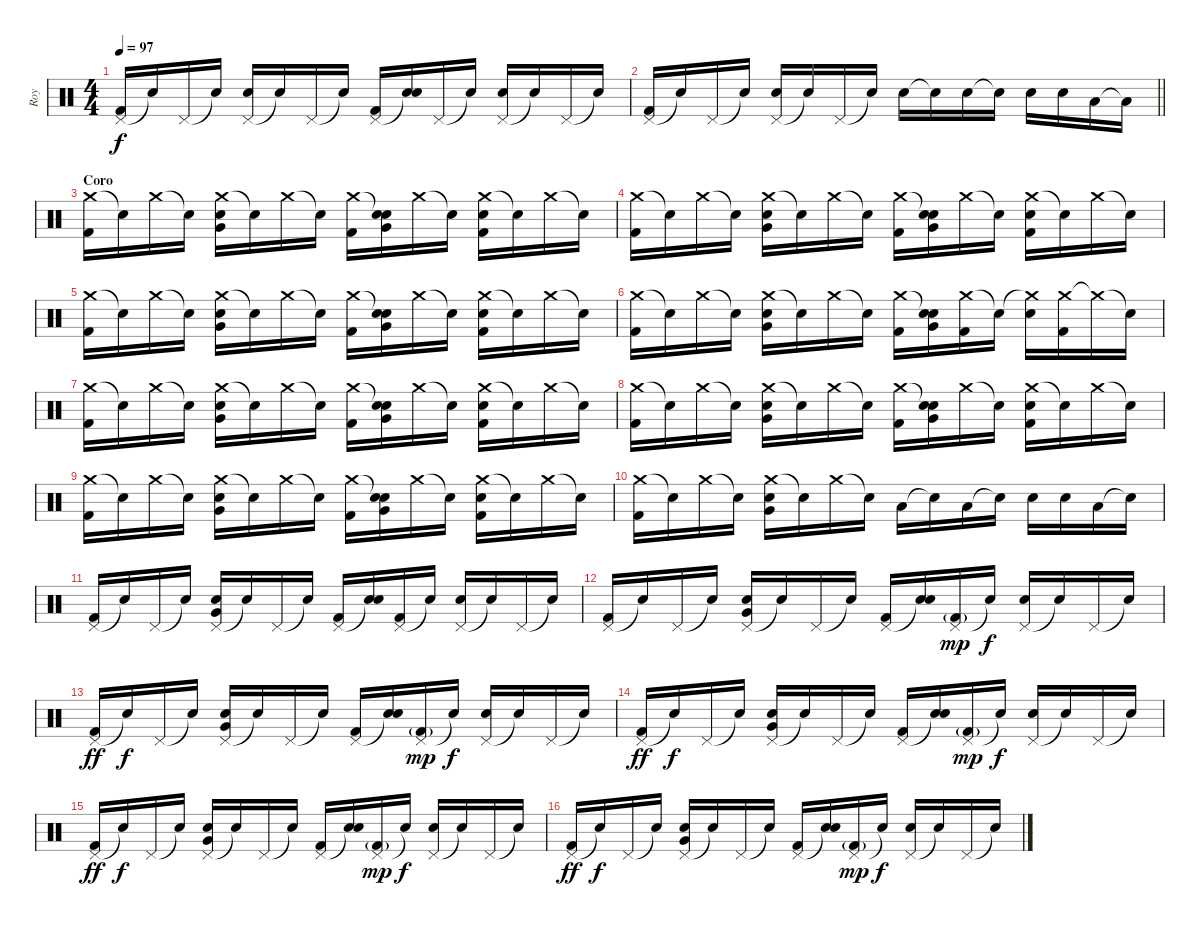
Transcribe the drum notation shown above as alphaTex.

\track ("Roy" "Roy") {instrument percussion}
\staff {score}
\articulation defaults
\ts (4 4)
\tempo 97
\clef neutral
\ks c
("Pedal Hi-Hat (hit)" "Kick (hit) 2").16{dy f} "Snare (hit)"{t}.16 "Pedal Hi-Hat (hit)".16 "Snare (hit)"{t}.16 ("Pedal Hi-Hat (hit)" "Electric Snare (hit)").16 "Snare (hit)"{t}.16 "Pedal Hi-Hat (hit)".16 "Snare (hit)"{t}.16 ("Pedal Hi-Hat (hit)" "Kick (hit) 2").16 ("Snare (hit)"{t} "Electric Snare (hit)").16 "Pedal Hi-Hat (hit)".16 "Snare (hit)"{t}.16 ("Pedal Hi-Hat (hit)" "Electric Snare (hit)").16 "Snare (hit)"{t}.16 "Pedal Hi-Hat (hit)".16 "Snare (hit)"{t}.16 |
\barLineRight lightlight
("Pedal Hi-Hat (hit)" "Kick (hit) 2").16 "Snare (hit)"{t}.16 "Pedal Hi-Hat (hit)".16 "Snare (hit)"{t}.16 ("Pedal Hi-Hat (hit)" "Electric Snare (hit)").16 "Snare (hit)"{t}.16 "Pedal Hi-Hat (hit)".16 "Snare (hit)"{t}.16 "Electric Snare (hit)".16 "Electric Snare (hit)"{t}.16 "Electric Snare (hit)".16 "Snare (hit)"{t}.16 "Electric Snare (hit)".16 "Electric Snare (hit)".16 "Low Tom (hit)".16 "Low Tom (hit)"{t}.16 |
\section ("" "Coro")
("Crash medium (hit)" "Kick (hit) 2").16 "Snare (hit)"{t}.16 "Crash medium (hit)".16 "Snare (hit)"{t}.16 ("Crash medium (hit)" "Electric Snare (hit)" "Very Low Tom (hit)").16 "Snare (hit)"{t}.16 "Crash medium (hit)".16 "Snare (hit)"{t}.16 ("Crash medium (hit)" "Kick (hit) 2").16 ("Snare (hit)"{t} "Electric Snare (hit)" "Very Low Tom (hit)").16 "Crash medium (hit)".16 "Snare (hit)"{t}.16 ("Crash medium (hit)" "Electric Snare (hit)" "Kick (hit) 2").16 "Snare (hit)"{t}.16 "Crash medium (hit)".16 "Snare (hit)"{t}.16 |
("Crash medium (hit)" "Kick (hit) 2").16 "Snare (hit)"{t}.16 "Crash medium (hit)".16 "Snare (hit)"{t}.16 ("Crash medium (hit)" "Electric Snare (hit)" "Very Low Tom (hit)").16 "Snare (hit)"{t}.16 "Crash medium (hit)".16 "Snare (hit)"{t}.16 ("Crash medium (hit)" "Kick (hit) 2").16 ("Snare (hit)"{t} "Electric Snare (hit)" "Very Low Tom (hit)").16 "Crash medium (hit)".16 "Snare (hit)"{t}.16 ("Crash medium (hit)" "Electric Snare (hit)" "Kick (hit) 2").16 "Snare (hit)"{t}.16 "Crash medium (hit)".16 "Snare (hit)"{t}.16 |
("Crash medium (hit)" "Kick (hit) 2").16 "Snare (hit)"{t}.16 "Crash medium (hit)".16 "Snare (hit)"{t}.16 ("Crash medium (hit)" "Electric Snare (hit)" "Very Low Tom (hit)").16 "Snare (hit)"{t}.16 "Crash medium (hit)".16 "Snare (hit)"{t}.16 ("Crash medium (hit)" "Kick (hit) 2").16 ("Snare (hit)"{t} "Electric Snare (hit)" "Very Low Tom (hit)").16 "Crash medium (hit)".16 "Snare (hit)"{t}.16 ("Crash medium (hit)" "Electric Snare (hit)" "Kick (hit) 2").16 "Snare (hit)"{t}.16 "Crash medium (hit)".16 "Snare (hit)"{t}.16 |
("Crash medium (hit)" "Kick (hit) 2").16 "Snare (hit)"{t}.16 "Crash medium (hit)".16 "Snare (hit)"{t}.16 ("Crash medium (hit)" "Electric Snare (hit)" "Very Low Tom (hit)").16 "Snare (hit)"{t}.16 "Crash medium (hit)".16 "Snare (hit)"{t}.16 ("Crash medium (hit)" "Kick (hit) 2").16 ("Snare (hit)"{t} "Electric Snare (hit)" "Very Low Tom (hit)").16 ("Crash medium (hit)" "Kick (hit) 2").16 "Snare (hit)"{t}.16 ("Crash medium (hit)"{t} "Electric Snare (hit)").16 ("Crash medium (hit)" "Kick (hit) 2").16 "Crash medium (hit)"{t}.16 "Snare (hit)"{t}.16 |
("Crash medium (hit)" "Kick (hit) 2").16 "Snare (hit)"{t}.16 "Crash medium (hit)".16 "Snare (hit)"{t}.16 ("Crash medium (hit)" "Electric Snare (hit)" "Very Low Tom (hit)").16 "Snare (hit)"{t}.16 "Crash medium (hit)".16 "Snare (hit)"{t}.16 ("Crash medium (hit)" "Kick (hit) 2").16 ("Snare (hit)"{t} "Electric Snare (hit)" "Very Low Tom (hit)").16 "Crash medium (hit)".16 "Snare (hit)"{t}.16 ("Crash medium (hit)" "Electric Snare (hit)" "Kick (hit) 2").16 "Snare (hit)"{t}.16 "Crash medium (hit)".16 "Snare (hit)"{t}.16 |
("Crash medium (hit)" "Kick (hit) 2").16 "Snare (hit)"{t}.16 "Crash medium (hit)".16 "Snare (hit)"{t}.16 ("Crash medium (hit)" "Electric Snare (hit)" "Very Low Tom (hit)").16 "Snare (hit)"{t}.16 "Crash medium (hit)".16 "Snare (hit)"{t}.16 ("Crash medium (hit)" "Kick (hit) 2").16 ("Snare (hit)"{t} "Electric Snare (hit)" "Very Low Tom (hit)").16 "Crash medium (hit)".16 "Snare (hit)"{t}.16 ("Crash medium (hit)" "Electric Snare (hit)" "Kick (hit) 2").16 "Snare (hit)"{t}.16 "Crash medium (hit)".16 "Snare (hit)"{t}.16 |
("Crash medium (hit)" "Kick (hit) 2").16 "Snare (hit)"{t}.16 "Crash medium (hit)".16 "Snare (hit)"{t}.16 ("Crash medium (hit)" "Electric Snare (hit)" "Very Low Tom (hit)").16 "Snare (hit)"{t}.16 "Crash medium (hit)".16 "Snare (hit)"{t}.16 ("Crash medium (hit)" "Kick (hit) 2").16 ("Snare (hit)"{t} "Electric Snare (hit)" "Very Low Tom (hit)").16 "Crash medium (hit)".16 "Snare (hit)"{t}.16 ("Crash medium (hit)" "Electric Snare (hit)" "Kick (hit) 2").16 "Snare (hit)"{t}.16 "Crash medium (hit)".16 "Snare (hit)"{t}.16 |
("Crash medium (hit)" "Kick (hit) 2").16 "Snare (hit)"{t}.16 "Crash medium (hit)".16 "Snare (hit)"{t}.16 ("Crash medium (hit)" "Electric Snare (hit)" "Very Low Tom (hit)").16 "Snare (hit)"{t}.16 "Crash medium (hit)".16 "Snare (hit)"{t}.16 "Low Tom (hit)".16 "Snare (hit)"{t}.16 "Low Tom (hit)".16 "Snare (hit)"{t}.16 "Electric Snare (hit)".16 "Electric Snare (hit)".16 "Low Tom (hit)".16 "Snare (hit)"{t}.16 |
("Pedal Hi-Hat (hit)" "Kick (hit) 2").16 "Snare (hit)"{t}.16 "Pedal Hi-Hat (hit)".16 "Snare (hit)"{t}.16 ("Pedal Hi-Hat (hit)" "Electric Snare (hit)" "Very Low Tom (hit)").16 "Snare (hit)"{t}.16 "Pedal Hi-Hat (hit)".16 "Snare (hit)"{t}.16 ("Pedal Hi-Hat (hit)" "Kick (hit) 2").16 ("Snare (hit)"{t} "Electric Snare (hit)").16 ("Pedal Hi-Hat (hit)" "Kick (hit) 2").16 "Snare (hit)"{t}.16 ("Pedal Hi-Hat (hit)" "Electric Snare (hit)").16 "Snare (hit)"{t}.16 "Pedal Hi-Hat (hit)".16 "Snare (hit)"{t}.16 |
("Pedal Hi-Hat (hit)" "Kick (hit) 2").16 "Snare (hit)"{t}.16 "Pedal Hi-Hat (hit)".16 "Snare (hit)"{t}.16 ("Pedal Hi-Hat (hit)" "Electric Snare (hit)" "Very Low Tom (hit)").16 "Snare (hit)"{t}.16 "Pedal Hi-Hat (hit)".16 "Snare (hit)"{t}.16 ("Pedal Hi-Hat (hit)" "Kick (hit) 2").16 ("Snare (hit)"{t} "Electric Snare (hit)").16 ("Pedal Hi-Hat (hit)" "Kick (hit) 2"{g}).16{dy mp} "Snare (hit)"{t}.16{dy f} ("Pedal Hi-Hat (hit)" "Electric Snare (hit)").16 "Snare (hit)"{t}.16 "Pedal Hi-Hat (hit)".16 "Snare (hit)"{t}.16 |
("Pedal Hi-Hat (hit)" "Kick (hit) 2").16{dy ff} "Snare (hit)"{t}.16{dy f} "Pedal Hi-Hat (hit)".16 "Snare (hit)"{t}.16 ("Pedal Hi-Hat (hit)" "Electric Snare (hit)" "Very Low Tom (hit)").16 "Snare (hit)"{t}.16 "Pedal Hi-Hat (hit)".16 "Snare (hit)"{t}.16 ("Pedal Hi-Hat (hit)" "Kick (hit) 2").16 ("Snare (hit)"{t} "Electric Snare (hit)").16 ("Pedal Hi-Hat (hit)" "Kick (hit) 2"{g}).16{dy mp} "Snare (hit)"{t}.16{dy f} ("Pedal Hi-Hat (hit)" "Electric Snare (hit)").16 "Snare (hit)"{t}.16 "Pedal Hi-Hat (hit)".16 "Snare (hit)"{t}.16 |
("Pedal Hi-Hat (hit)" "Kick (hit) 2").16{dy ff} "Snare (hit)"{t}.16{dy f} "Pedal Hi-Hat (hit)".16 "Snare (hit)"{t}.16 ("Pedal Hi-Hat (hit)" "Electric Snare (hit)" "Very Low Tom (hit)").16 "Snare (hit)"{t}.16 "Pedal Hi-Hat (hit)".16 "Snare (hit)"{t}.16 ("Pedal Hi-Hat (hit)" "Kick (hit) 2").16 ("Snare (hit)"{t} "Electric Snare (hit)").16 ("Pedal Hi-Hat (hit)" "Kick (hit) 2"{g}).16{dy mp} "Snare (hit)"{t}.16{dy f} ("Pedal Hi-Hat (hit)" "Electric Snare (hit)").16 "Snare (hit)"{t}.16 "Pedal Hi-Hat (hit)".16 "Snare (hit)"{t}.16 |
("Pedal Hi-Hat (hit)" "Kick (hit) 2").16{dy ff} "Snare (hit)"{t}.16{dy f} "Pedal Hi-Hat (hit)".16 "Snare (hit)"{t}.16 ("Pedal Hi-Hat (hit)" "Electric Snare (hit)" "Very Low Tom (hit)").16 "Snare (hit)"{t}.16 "Pedal Hi-Hat (hit)".16 "Snare (hit)"{t}.16 ("Pedal Hi-Hat (hit)" "Kick (hit) 2").16 ("Snare (hit)"{t} "Electric Snare (hit)").16 ("Pedal Hi-Hat (hit)" "Kick (hit) 2"{g}).16{dy mp} "Snare (hit)"{t}.16{dy f} ("Pedal Hi-Hat (hit)" "Electric Snare (hit)").16 "Snare (hit)"{t}.16 "Pedal Hi-Hat (hit)".16 "Snare (hit)"{t}.16 |
("Pedal Hi-Hat (hit)" "Kick (hit) 2").16{dy ff} "Snare (hit)"{t}.16{dy f} "Pedal Hi-Hat (hit)".16 "Snare (hit)"{t}.16 ("Pedal Hi-Hat (hit)" "Electric Snare (hit)" "Very Low Tom (hit)").16 "Snare (hit)"{t}.16 "Pedal Hi-Hat (hit)".16 "Snare (hit)"{t}.16 ("Pedal Hi-Hat (hit)" "Kick (hit) 2").16 ("Snare (hit)"{t} "Electric Snare (hit)").16 ("Pedal Hi-Hat (hit)" "Kick (hit) 2"{g}).16{dy mp} "Snare (hit)"{t}.16{dy f} ("Pedal Hi-Hat (hit)" "Electric Snare (hit)").16 "Snare (hit)"{t}.16 "Pedal Hi-Hat (hit)".16 "Snare (hit)"{t}.16
